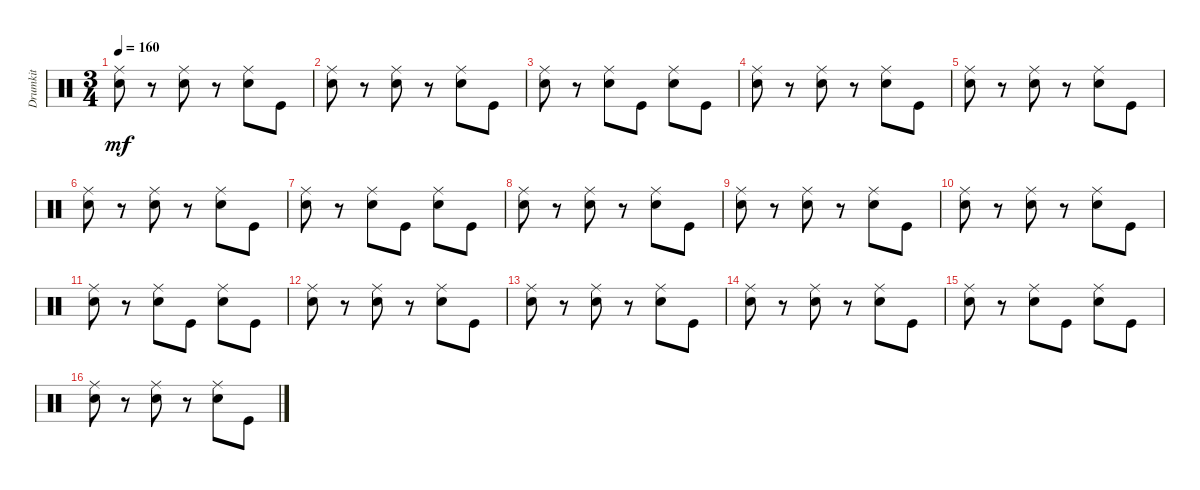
\track ("Drumkit" "Drumkit") {instrument percussion}
\staff {score}
\articulation defaults
\ts (3 4)
\tempo 160
\clef neutral
\ks c
("Snare (hit) 2" "Ride (middle)").8{dy mf} r.8 ("Snare (hit) 2" "Ride (middle)").8 r.8 ("Ride (middle)" "Snare (hit) 2").8 "Kick (hit)".8 |
("Snare (hit) 2" "Ride (middle)").8 r.8 ("Snare (hit) 2" "Ride (middle)").8 r.8 ("Ride (middle)" "Snare (hit) 2").8 "Kick (hit)".8 |
("Snare (hit) 2" "Ride (middle)").8 r.8 ("Snare (hit) 2" "Ride (middle)").8 "Kick (hit)".8 ("Ride (middle)" "Snare (hit) 2").8 "Kick (hit)".8 |
("Snare (hit) 2" "Ride (middle)").8 r.8 ("Snare (hit) 2" "Ride (middle)").8 r.8 ("Ride (middle)" "Snare (hit) 2").8 "Kick (hit)".8 |
("Snare (hit) 2" "Ride (middle)").8 r.8 ("Snare (hit) 2" "Ride (middle)").8 r.8 ("Ride (middle)" "Snare (hit) 2").8 "Kick (hit)".8 |
("Snare (hit) 2" "Ride (middle)").8 r.8 ("Snare (hit) 2" "Ride (middle)").8 r.8 ("Ride (middle)" "Snare (hit) 2").8 "Kick (hit)".8 |
("Snare (hit) 2" "Ride (middle)").8 r.8 ("Snare (hit) 2" "Ride (middle)").8 "Kick (hit)".8 ("Ride (middle)" "Snare (hit) 2").8 "Kick (hit)".8 |
("Snare (hit) 2" "Ride (middle)").8 r.8 ("Snare (hit) 2" "Ride (middle)").8 r.8 ("Ride (middle)" "Snare (hit) 2").8 "Kick (hit)".8 |
("Snare (hit) 2" "Ride (middle)").8 r.8 ("Snare (hit) 2" "Ride (middle)").8 r.8 ("Ride (middle)" "Snare (hit) 2").8 "Kick (hit)".8 |
("Snare (hit) 2" "Ride (middle)").8 r.8 ("Snare (hit) 2" "Ride (middle)").8 r.8 ("Ride (middle)" "Snare (hit) 2").8 "Kick (hit)".8 |
("Snare (hit) 2" "Ride (middle)").8 r.8 ("Snare (hit) 2" "Ride (middle)").8 "Kick (hit)".8 ("Ride (middle)" "Snare (hit) 2").8 "Kick (hit)".8 |
("Snare (hit) 2" "Ride (middle)").8 r.8 ("Snare (hit) 2" "Ride (middle)").8 r.8 ("Ride (middle)" "Snare (hit) 2").8 "Kick (hit)".8 |
("Snare (hit) 2" "Ride (middle)").8 r.8 ("Snare (hit) 2" "Ride (middle)").8 r.8 ("Ride (middle)" "Snare (hit) 2").8 "Kick (hit)".8 |
("Snare (hit) 2" "Ride (middle)").8 r.8 ("Snare (hit) 2" "Ride (middle)").8 r.8 ("Ride (middle)" "Snare (hit) 2").8 "Kick (hit)".8 |
("Snare (hit) 2" "Ride (middle)").8 r.8 ("Snare (hit) 2" "Ride (middle)").8 "Kick (hit)".8 ("Ride (middle)" "Snare (hit) 2").8 "Kick (hit)".8 |
("Snare (hit) 2" "Ride (middle)").8 r.8 ("Snare (hit) 2" "Ride (middle)").8 r.8 ("Ride (middle)" "Snare (hit) 2").8 "Kick (hit)".8
